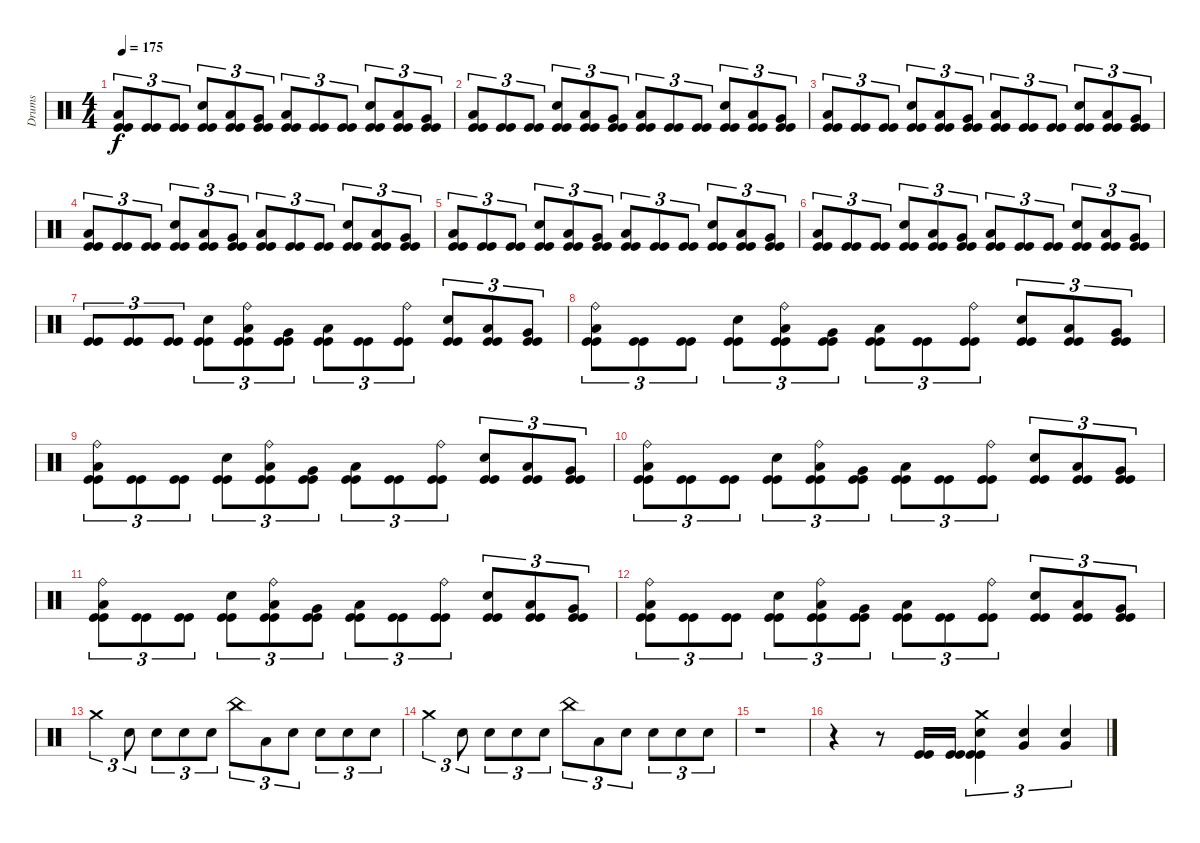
\track ("Drums" "Drums") {instrument percussion}
\staff {score}
\articulation defaults
\ts (4 4)
\tempo 175
\clef neutral
\ks c
("Kick (hit)" "Kick (hit)" "Low Floor Tom (hit)").8{tu (3 2) dy f} ("Kick (hit)" "Kick (hit)").8{tu (3 2)} ("Kick (hit)" "Kick (hit)").8{tu (3 2)} ("Kick (hit)" "Kick (hit)" "Snare (hit) 2").8{tu (3 2)} ("Kick (hit)" "Kick (hit)" "Low Tom (hit)").8{tu (3 2)} ("Kick (hit)" "Kick (hit)" "Very Low Tom (hit)").8{tu (3 2)} ("Kick (hit)" "Kick (hit)" "Low Floor Tom (hit)").8{tu (3 2)} ("Kick (hit)" "Kick (hit)").8{tu (3 2)} ("Kick (hit)" "Kick (hit)").8{tu (3 2)} ("Kick (hit)" "Kick (hit)" "Snare (hit) 2").8{tu (3 2)} ("Kick (hit)" "Kick (hit)" "Low Tom (hit)").8{tu (3 2)} ("Kick (hit)" "Kick (hit)" "Very Low Tom (hit)").8{tu (3 2)} |
("Kick (hit)" "Kick (hit)" "Low Floor Tom (hit)").8{tu (3 2)} ("Kick (hit)" "Kick (hit)").8{tu (3 2)} ("Kick (hit)" "Kick (hit)").8{tu (3 2)} ("Kick (hit)" "Kick (hit)" "Snare (hit) 2").8{tu (3 2)} ("Kick (hit)" "Kick (hit)" "Low Tom (hit)").8{tu (3 2)} ("Kick (hit)" "Kick (hit)" "Very Low Tom (hit)").8{tu (3 2)} ("Kick (hit)" "Kick (hit)" "Low Floor Tom (hit)").8{tu (3 2)} ("Kick (hit)" "Kick (hit)").8{tu (3 2)} ("Kick (hit)" "Kick (hit)").8{tu (3 2)} ("Kick (hit)" "Kick (hit)" "Snare (hit) 2").8{tu (3 2)} ("Kick (hit)" "Kick (hit)" "Low Tom (hit)").8{tu (3 2)} ("Kick (hit)" "Kick (hit)" "Very Low Tom (hit)").8{tu (3 2)} |
("Kick (hit)" "Kick (hit)" "Low Floor Tom (hit)").8{tu (3 2)} ("Kick (hit)" "Kick (hit)").8{tu (3 2)} ("Kick (hit)" "Kick (hit)").8{tu (3 2)} ("Kick (hit)" "Kick (hit)" "Snare (hit) 2").8{tu (3 2)} ("Kick (hit)" "Kick (hit)" "Low Tom (hit)").8{tu (3 2)} ("Kick (hit)" "Kick (hit)" "Very Low Tom (hit)").8{tu (3 2)} ("Kick (hit)" "Kick (hit)" "Low Floor Tom (hit)").8{tu (3 2)} ("Kick (hit)" "Kick (hit)").8{tu (3 2)} ("Kick (hit)" "Kick (hit)").8{tu (3 2)} ("Kick (hit)" "Kick (hit)" "Snare (hit) 2").8{tu (3 2)} ("Kick (hit)" "Kick (hit)" "Low Tom (hit)").8{tu (3 2)} ("Kick (hit)" "Kick (hit)" "Very Low Tom (hit)").8{tu (3 2)} |
("Kick (hit)" "Kick (hit)" "Low Floor Tom (hit)").8{tu (3 2)} ("Kick (hit)" "Kick (hit)").8{tu (3 2)} ("Kick (hit)" "Kick (hit)").8{tu (3 2)} ("Kick (hit)" "Kick (hit)" "Snare (hit) 2").8{tu (3 2)} ("Kick (hit)" "Kick (hit)" "Low Tom (hit)").8{tu (3 2)} ("Kick (hit)" "Kick (hit)" "Very Low Tom (hit)").8{tu (3 2)} ("Kick (hit)" "Kick (hit)" "Low Floor Tom (hit)").8{tu (3 2)} ("Kick (hit)" "Kick (hit)").8{tu (3 2)} ("Kick (hit)" "Kick (hit)").8{tu (3 2)} ("Kick (hit)" "Kick (hit)" "Snare (hit) 2").8{tu (3 2)} ("Kick (hit)" "Kick (hit)" "Low Tom (hit)").8{tu (3 2)} ("Kick (hit)" "Kick (hit)" "Very Low Tom (hit)").8{tu (3 2)} |
("Kick (hit)" "Kick (hit)" "Low Floor Tom (hit)").8{tu (3 2)} ("Kick (hit)" "Kick (hit)").8{tu (3 2)} ("Kick (hit)" "Kick (hit)").8{tu (3 2)} ("Kick (hit)" "Kick (hit)" "Snare (hit) 2").8{tu (3 2)} ("Kick (hit)" "Kick (hit)" "Low Tom (hit)").8{tu (3 2)} ("Kick (hit)" "Kick (hit)" "Very Low Tom (hit)").8{tu (3 2)} ("Kick (hit)" "Kick (hit)" "Low Floor Tom (hit)").8{tu (3 2)} ("Kick (hit)" "Kick (hit)").8{tu (3 2)} ("Kick (hit)" "Kick (hit)").8{tu (3 2)} ("Kick (hit)" "Kick (hit)" "Snare (hit) 2").8{tu (3 2)} ("Kick (hit)" "Kick (hit)" "Low Tom (hit)").8{tu (3 2)} ("Kick (hit)" "Kick (hit)" "Very Low Tom (hit)").8{tu (3 2)} |
("Kick (hit)" "Kick (hit)" "Low Floor Tom (hit)").8{tu (3 2)} ("Kick (hit)" "Kick (hit)").8{tu (3 2)} ("Kick (hit)" "Kick (hit)").8{tu (3 2)} ("Kick (hit)" "Kick (hit)" "Snare (hit) 2").8{tu (3 2)} ("Kick (hit)" "Kick (hit)" "Low Tom (hit)").8{tu (3 2)} ("Kick (hit)" "Kick (hit)" "Very Low Tom (hit)").8{tu (3 2)} ("Kick (hit)" "Kick (hit)" "Low Floor Tom (hit)").8{tu (3 2)} ("Kick (hit)" "Kick (hit)").8{tu (3 2)} ("Kick (hit)" "Kick (hit)").8{tu (3 2)} ("Kick (hit)" "Kick (hit)" "Snare (hit) 2").8{tu (3 2)} ("Kick (hit)" "Kick (hit)" "Low Tom (hit)").8{tu (3 2)} ("Kick (hit)" "Kick (hit)" "Very Low Tom (hit)").8{tu (3 2)} |
("Kick (hit)" "Kick (hit)").8{tu (3 2)} ("Kick (hit)" "Kick (hit)").8{tu (3 2)} ("Kick (hit)" "Kick (hit)").8{tu (3 2)} ("Kick (hit)" "Kick (hit)" "Snare (hit) 2").8{tu (3 2)} ("Kick (hit)" "Kick (hit)" "Low Tom (hit)" "Ride (bell)").8{tu (3 2)} ("Kick (hit)" "Kick (hit)" "Very Low Tom (hit)").8{tu (3 2)} ("Kick (hit)" "Kick (hit)" "Low Floor Tom (hit)").8{tu (3 2)} ("Kick (hit)" "Kick (hit)").8{tu (3 2)} ("Kick (hit)" "Kick (hit)" "Ride (bell)").8{tu (3 2)} ("Kick (hit)" "Kick (hit)" "Snare (hit) 2").8{tu (3 2)} ("Kick (hit)" "Kick (hit)" "Low Tom (hit)").8{tu (3 2)} ("Kick (hit)" "Kick (hit)" "Very Low Tom (hit)").8{tu (3 2)} |
("Kick (hit)" "Kick (hit)" "Low Floor Tom (hit)" "Ride (bell)").8{tu (3 2)} ("Kick (hit)" "Kick (hit)").8{tu (3 2)} ("Kick (hit)" "Kick (hit)").8{tu (3 2)} ("Kick (hit)" "Kick (hit)" "Snare (hit) 2").8{tu (3 2)} ("Kick (hit)" "Kick (hit)" "Low Tom (hit)" "Ride (bell)").8{tu (3 2)} ("Kick (hit)" "Kick (hit)" "Very Low Tom (hit)").8{tu (3 2)} ("Kick (hit)" "Kick (hit)" "Low Floor Tom (hit)").8{tu (3 2)} ("Kick (hit)" "Kick (hit)").8{tu (3 2)} ("Kick (hit)" "Kick (hit)" "Ride (bell)").8{tu (3 2)} ("Kick (hit)" "Kick (hit)" "Snare (hit) 2").8{tu (3 2)} ("Kick (hit)" "Kick (hit)" "Low Tom (hit)").8{tu (3 2)} ("Kick (hit)" "Kick (hit)" "Very Low Tom (hit)").8{tu (3 2)} |
("Kick (hit)" "Kick (hit)" "Low Floor Tom (hit)" "Ride (bell)").8{tu (3 2)} ("Kick (hit)" "Kick (hit)").8{tu (3 2)} ("Kick (hit)" "Kick (hit)").8{tu (3 2)} ("Kick (hit)" "Kick (hit)" "Snare (hit) 2").8{tu (3 2)} ("Kick (hit)" "Kick (hit)" "Low Tom (hit)" "Ride (bell)").8{tu (3 2)} ("Kick (hit)" "Kick (hit)" "Very Low Tom (hit)").8{tu (3 2)} ("Kick (hit)" "Kick (hit)" "Low Floor Tom (hit)").8{tu (3 2)} ("Kick (hit)" "Kick (hit)").8{tu (3 2)} ("Kick (hit)" "Kick (hit)" "Ride (bell)").8{tu (3 2)} ("Kick (hit)" "Kick (hit)" "Snare (hit) 2").8{tu (3 2)} ("Kick (hit)" "Kick (hit)" "Low Tom (hit)").8{tu (3 2)} ("Kick (hit)" "Kick (hit)" "Very Low Tom (hit)").8{tu (3 2)} |
("Kick (hit)" "Kick (hit)" "Low Floor Tom (hit)" "Ride (bell)").8{tu (3 2)} ("Kick (hit)" "Kick (hit)").8{tu (3 2)} ("Kick (hit)" "Kick (hit)").8{tu (3 2)} ("Kick (hit)" "Kick (hit)" "Snare (hit) 2").8{tu (3 2)} ("Kick (hit)" "Kick (hit)" "Low Tom (hit)" "Ride (bell)").8{tu (3 2)} ("Kick (hit)" "Kick (hit)" "Very Low Tom (hit)").8{tu (3 2)} ("Kick (hit)" "Kick (hit)" "Low Floor Tom (hit)").8{tu (3 2)} ("Kick (hit)" "Kick (hit)").8{tu (3 2)} ("Kick (hit)" "Kick (hit)" "Ride (bell)").8{tu (3 2)} ("Kick (hit)" "Kick (hit)" "Snare (hit) 2").8{tu (3 2)} ("Kick (hit)" "Kick (hit)" "Low Tom (hit)").8{tu (3 2)} ("Kick (hit)" "Kick (hit)" "Very Low Tom (hit)").8{tu (3 2)} |
("Kick (hit)" "Kick (hit)" "Low Floor Tom (hit)" "Ride (bell)").8{tu (3 2)} ("Kick (hit)" "Kick (hit)").8{tu (3 2)} ("Kick (hit)" "Kick (hit)").8{tu (3 2)} ("Kick (hit)" "Kick (hit)" "Snare (hit) 2").8{tu (3 2)} ("Kick (hit)" "Kick (hit)" "Low Tom (hit)" "Ride (bell)").8{tu (3 2)} ("Kick (hit)" "Kick (hit)" "Very Low Tom (hit)").8{tu (3 2)} ("Kick (hit)" "Kick (hit)" "Low Floor Tom (hit)").8{tu (3 2)} ("Kick (hit)" "Kick (hit)").8{tu (3 2)} ("Kick (hit)" "Kick (hit)" "Ride (bell)").8{tu (3 2)} ("Kick (hit)" "Kick (hit)" "Snare (hit) 2").8{tu (3 2)} ("Kick (hit)" "Kick (hit)" "Low Tom (hit)").8{tu (3 2)} ("Kick (hit)" "Kick (hit)" "Very Low Tom (hit)").8{tu (3 2)} |
("Kick (hit)" "Kick (hit)" "Low Floor Tom (hit)" "Ride (bell)").8{tu (3 2)} ("Kick (hit)" "Kick (hit)").8{tu (3 2)} ("Kick (hit)" "Kick (hit)").8{tu (3 2)} ("Kick (hit)" "Kick (hit)" "Snare (hit) 2").8{tu (3 2)} ("Kick (hit)" "Kick (hit)" "Low Tom (hit)" "Ride (bell)").8{tu (3 2)} ("Kick (hit)" "Kick (hit)" "Very Low Tom (hit)").8{tu (3 2)} ("Kick (hit)" "Kick (hit)" "Low Floor Tom (hit)").8{tu (3 2)} ("Kick (hit)" "Kick (hit)").8{tu (3 2)} ("Kick (hit)" "Kick (hit)" "Ride (bell)").8{tu (3 2)} ("Kick (hit)" "Kick (hit)" "Snare (hit) 2").8{tu (3 2)} ("Kick (hit)" "Kick (hit)" "Low Tom (hit)").8{tu (3 2)} ("Kick (hit)" "Kick (hit)" "Very Low Tom (hit)").8{tu (3 2)} |
"Crash medium (hit)".4{tu (3 2)} "Snare (hit) 2".8{tu (3 2)} "Snare (hit) 2".8{tu (3 2)} "Snare (hit) 2".8{tu (3 2)} "Snare (hit) 2".8{tu (3 2)} "China (hit)".8{tu (3 2)} "Low Floor Tom (hit)".8{tu (3 2)} "Snare (hit) 2".8{tu (3 2)} "Snare (hit) 2".8{tu (3 2)} "Snare (hit) 2".8{tu (3 2)} "Snare (hit) 2".8{tu (3 2)} |
"Crash medium (hit)".4{tu (3 2)} "Snare (hit) 2".8{tu (3 2)} "Snare (hit) 2".8{tu (3 2)} "Snare (hit) 2".8{tu (3 2)} "Snare (hit) 2".8{tu (3 2)} "China (hit)".8{tu (3 2)} "Low Floor Tom (hit)".8{tu (3 2)} "Snare (hit) 2".8{tu (3 2)} "Snare (hit) 2".8{tu (3 2)} "Snare (hit) 2".8{tu (3 2)} "Snare (hit) 2".8{tu (3 2)} |
r.1 |
r.4 r.8 ("Kick (hit)" "Kick (hit)").16 ("Kick (hit)" "Kick (hit)").16 ("Kick (hit)" "Kick (hit)" "Snare (hit) 2" "Crash medium (hit)").4{tu (3 2)} ("Very Low Tom (hit)" "Snare (hit) 2").4{tu (3 2)} ("Very Low Tom (hit)" "Snare (hit) 2").4{tu (3 2)}
